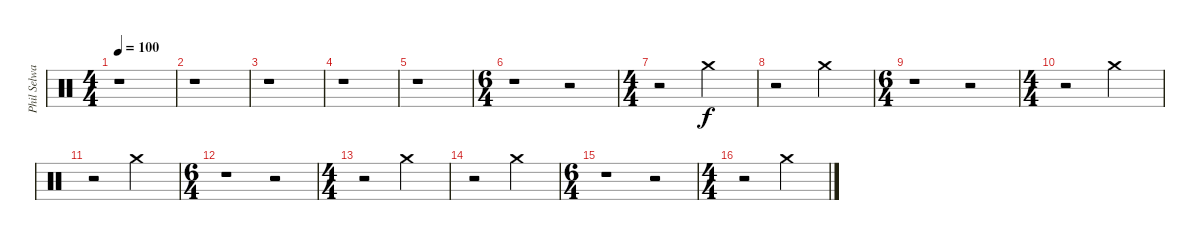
\track ("Phil Selway" "Phil Selwa") {instrument percussion}
\staff {score}
\articulation defaults
\ts (4 4)
\tempo 100
\clef neutral
\ks c
r.1{dy f} |
r.1 |
r.1 |
r.1 |
r.1 |
\ts (6 4)
r.1 r.2 |
\ts (4 4)
r.2 "Crash medium (hit)".2 |
r.2 "Crash medium (hit)".2 |
\ts (6 4)
r.1 r.2 |
\ts (4 4)
r.2 "Crash medium (hit)".2 |
r.2 "Crash medium (hit)".2 |
\ts (6 4)
r.1 r.2 |
\ts (4 4)
r.2 "Crash medium (hit)".2 |
r.2 "Crash medium (hit)".2 |
\ts (6 4)
r.1 r.2 |
\ts (4 4)
r.2 "Crash medium (hit)".2
